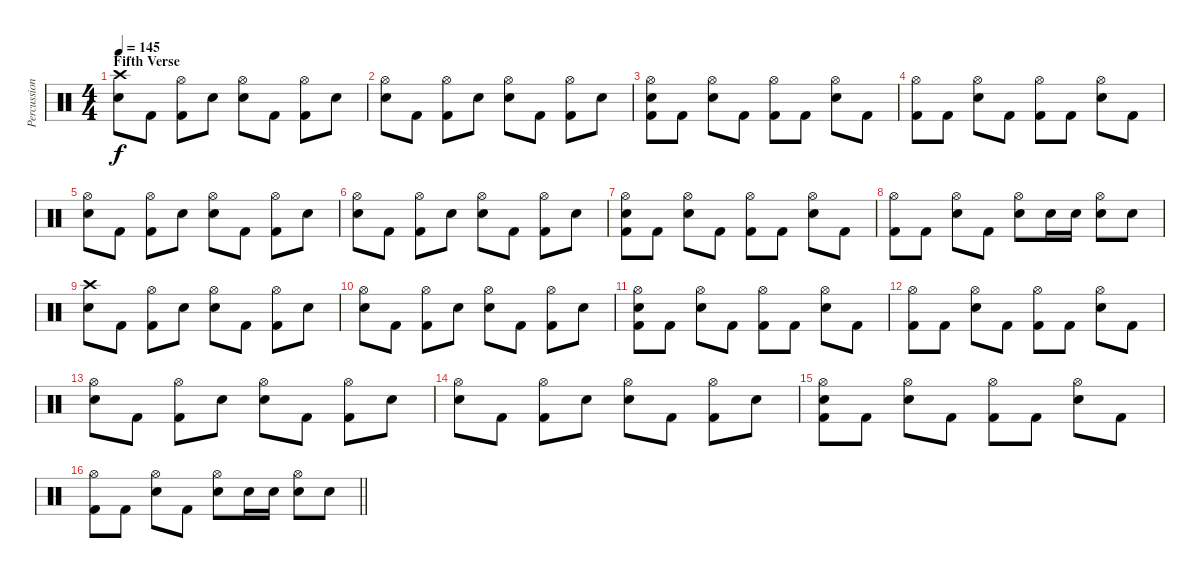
\track ("Percussion" "Percussion") {instrument percussion}
\staff {score}
\articulation defaults
\ts (4 4)
\section ("" "Fifth Verse")
\tempo 145
\clef neutral
\ks c
("Crash high (hit)" "Electric Snare (hit)").8{dy f} "Kick (hit) 2".8 ("Hi-Hat (open)" "Kick (hit) 2").8 "Electric Snare (hit)".8 ("Hi-Hat (open)" "Electric Snare (hit)").8 "Kick (hit) 2".8 ("Hi-Hat (open)" "Kick (hit) 2").8 "Electric Snare (hit)".8 |
("Hi-Hat (open)" "Electric Snare (hit)").8 "Kick (hit) 2".8 ("Hi-Hat (open)" "Kick (hit) 2").8 "Electric Snare (hit)".8 ("Hi-Hat (open)" "Electric Snare (hit)").8 "Kick (hit) 2".8 ("Hi-Hat (open)" "Kick (hit) 2").8 "Electric Snare (hit)".8 |
("Hi-Hat (open)" "Electric Snare (hit)" "Kick (hit) 2").8 "Kick (hit) 2".8 ("Hi-Hat (open)" "Electric Snare (hit)").8 "Kick (hit) 2".8 ("Hi-Hat (open)" "Kick (hit) 2").8 "Kick (hit) 2".8 ("Hi-Hat (open)" "Electric Snare (hit)").8 "Kick (hit) 2".8 |
("Hi-Hat (open)" "Kick (hit) 2").8 "Kick (hit) 2".8 ("Hi-Hat (open)" "Electric Snare (hit)").8 "Kick (hit) 2".8 ("Hi-Hat (open)" "Kick (hit) 2").8 "Kick (hit) 2".8 ("Hi-Hat (open)" "Electric Snare (hit)").8 "Kick (hit) 2".8 |
("Hi-Hat (open)" "Electric Snare (hit)").8 "Kick (hit) 2".8 ("Hi-Hat (open)" "Kick (hit) 2").8 "Electric Snare (hit)".8 ("Hi-Hat (open)" "Electric Snare (hit)").8 "Kick (hit) 2".8 ("Hi-Hat (open)" "Kick (hit) 2").8 "Electric Snare (hit)".8 |
("Hi-Hat (open)" "Electric Snare (hit)").8 "Kick (hit) 2".8 ("Hi-Hat (open)" "Kick (hit) 2").8 "Electric Snare (hit)".8 ("Hi-Hat (open)" "Electric Snare (hit)").8 "Kick (hit) 2".8 ("Hi-Hat (open)" "Kick (hit) 2").8 "Electric Snare (hit)".8 |
("Hi-Hat (open)" "Electric Snare (hit)" "Kick (hit) 2").8 "Kick (hit) 2".8 ("Hi-Hat (open)" "Electric Snare (hit)").8 "Kick (hit) 2".8 ("Hi-Hat (open)" "Kick (hit) 2").8 "Kick (hit) 2".8 ("Hi-Hat (open)" "Electric Snare (hit)").8 "Kick (hit) 2".8 |
("Hi-Hat (open)" "Kick (hit) 2").8 "Kick (hit) 2".8 ("Hi-Hat (open)" "Electric Snare (hit)").8 "Kick (hit) 2".8 ("Hi-Hat (open)" "Electric Snare (hit)").8 "Electric Snare (hit)".16 "Electric Snare (hit)".16 ("Hi-Hat (open)" "Electric Snare (hit)").8 "Electric Snare (hit)".8 |
("Crash high (hit)" "Electric Snare (hit)").8 "Kick (hit) 2".8 ("Hi-Hat (open)" "Kick (hit) 2").8 "Electric Snare (hit)".8 ("Hi-Hat (open)" "Electric Snare (hit)").8 "Kick (hit) 2".8 ("Hi-Hat (open)" "Kick (hit) 2").8 "Electric Snare (hit)".8 |
("Hi-Hat (open)" "Electric Snare (hit)").8 "Kick (hit) 2".8 ("Hi-Hat (open)" "Kick (hit) 2").8 "Electric Snare (hit)".8 ("Hi-Hat (open)" "Electric Snare (hit)").8 "Kick (hit) 2".8 ("Hi-Hat (open)" "Kick (hit) 2").8 "Electric Snare (hit)".8 |
("Hi-Hat (open)" "Electric Snare (hit)" "Kick (hit) 2").8 "Kick (hit) 2".8 ("Hi-Hat (open)" "Electric Snare (hit)").8 "Kick (hit) 2".8 ("Hi-Hat (open)" "Kick (hit) 2").8 "Kick (hit) 2".8 ("Hi-Hat (open)" "Electric Snare (hit)").8 "Kick (hit) 2".8 |
("Hi-Hat (open)" "Kick (hit) 2").8 "Kick (hit) 2".8 ("Hi-Hat (open)" "Electric Snare (hit)").8 "Kick (hit) 2".8 ("Hi-Hat (open)" "Kick (hit) 2").8 "Kick (hit) 2".8 ("Hi-Hat (open)" "Electric Snare (hit)").8 "Kick (hit) 2".8 |
("Hi-Hat (open)" "Electric Snare (hit)").8 "Kick (hit) 2".8 ("Hi-Hat (open)" "Kick (hit) 2").8 "Electric Snare (hit)".8 ("Hi-Hat (open)" "Electric Snare (hit)").8 "Kick (hit) 2".8 ("Hi-Hat (open)" "Kick (hit) 2").8 "Electric Snare (hit)".8 |
("Hi-Hat (open)" "Electric Snare (hit)").8 "Kick (hit) 2".8 ("Hi-Hat (open)" "Kick (hit) 2").8 "Electric Snare (hit)".8 ("Hi-Hat (open)" "Electric Snare (hit)").8 "Kick (hit) 2".8 ("Hi-Hat (open)" "Kick (hit) 2").8 "Electric Snare (hit)".8 |
("Hi-Hat (open)" "Electric Snare (hit)" "Kick (hit) 2").8 "Kick (hit) 2".8 ("Hi-Hat (open)" "Electric Snare (hit)").8 "Kick (hit) 2".8 ("Hi-Hat (open)" "Kick (hit) 2").8 "Kick (hit) 2".8 ("Hi-Hat (open)" "Electric Snare (hit)").8 "Kick (hit) 2".8 |
\barLineRight lightlight
("Hi-Hat (open)" "Kick (hit) 2").8 "Kick (hit) 2".8 ("Hi-Hat (open)" "Electric Snare (hit)").8 "Kick (hit) 2".8 ("Hi-Hat (open)" "Electric Snare (hit)").8 "Electric Snare (hit)".16 "Electric Snare (hit)".16 ("Hi-Hat (open)" "Electric Snare (hit)").8 "Electric Snare (hit)".8
